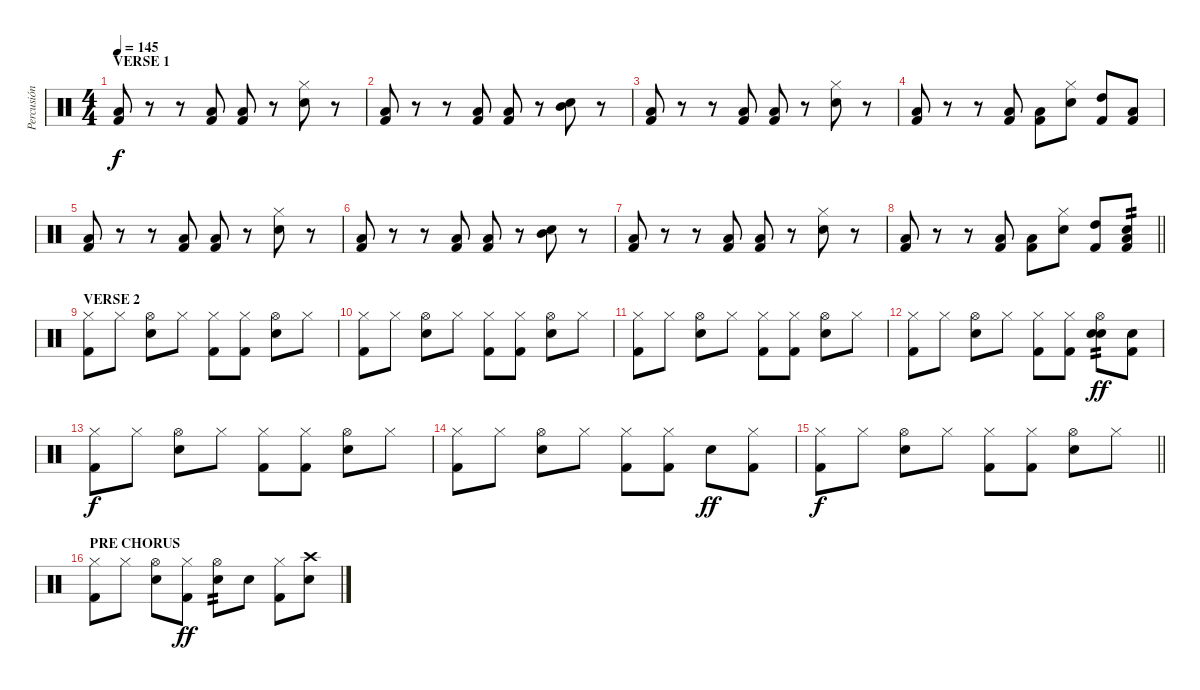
\track ("Percusión" "Percusión") {instrument percussion}
\staff {score}
\articulation defaults
\ts (4 4)
\section ("" "VERSE 1")
\tempo 145
\clef neutral
\ks c
("Kick (hit) 2" "Low Floor Tom (hit)").8{dy f} r.8 r.8 ("Kick (hit) 2" "Low Floor Tom (hit)").8 ("Kick (hit) 2" "Low Floor Tom (hit)").8 r.8 ("Snare (hit) 2" "Hi-Hat (closed)").8 r.8 |
("Kick (hit) 2" "Low Floor Tom (hit)").8 r.8 r.8 ("Kick (hit) 2" "Low Floor Tom (hit)").8 ("Kick (hit) 2" "Low Floor Tom (hit)").8 r.8 ("Snare (hit) 2" "Mid Tom (hit)").8 r.8 |
("Kick (hit) 2" "Low Floor Tom (hit)").8 r.8 r.8 ("Kick (hit) 2" "Low Floor Tom (hit)").8 ("Kick (hit) 2" "Low Floor Tom (hit)").8 r.8 ("Snare (hit) 2" "Hi-Hat (closed)").8 r.8 |
("Kick (hit) 2" "Low Floor Tom (hit)").8 r.8 r.8 ("Kick (hit) 2" "Low Floor Tom (hit)").8 ("Kick (hit) 2" "Low Floor Tom (hit)").8 ("Snare (hit) 2" "Hi-Hat (closed)").8 ("Kick (hit) 2" "High Tom (hit)").8 ("Kick (hit) 2" "Low Tom (hit)").8 |
("Kick (hit) 2" "Low Floor Tom (hit)").8 r.8 r.8 ("Kick (hit) 2" "Low Floor Tom (hit)").8 ("Kick (hit) 2" "Low Floor Tom (hit)").8 r.8 ("Snare (hit) 2" "Hi-Hat (closed)").8 r.8 |
("Kick (hit) 2" "Low Floor Tom (hit)").8 r.8 r.8 ("Kick (hit) 2" "Low Floor Tom (hit)").8 ("Kick (hit) 2" "Low Floor Tom (hit)").8 r.8 ("Snare (hit) 2" "Mid Tom (hit)").8 r.8 |
("Kick (hit) 2" "Low Floor Tom (hit)").8 r.8 r.8 ("Kick (hit) 2" "Low Floor Tom (hit)").8 ("Kick (hit) 2" "Low Floor Tom (hit)").8 r.8 ("Snare (hit) 2" "Hi-Hat (closed)").8 r.8 |
\barLineRight lightlight
("Kick (hit) 2" "Low Floor Tom (hit)").8 r.8 r.8 ("Kick (hit) 2" "Low Floor Tom (hit)").8 ("Kick (hit) 2" "Low Floor Tom (hit)").8 ("Snare (hit) 2" "Hi-Hat (closed)").8 ("Kick (hit) 2" "High Tom (hit)").8 ("Kick (hit) 2" "Low Tom (hit)" "Snare (hit) 2").8{tp 2} |
\section ("" "VERSE 2")
("Hi-Hat (closed)" "Kick (hit) 2").8 "Hi-Hat (closed)".8 ("Snare (hit) 2" "Hi-Hat (open)").8 "Hi-Hat (closed)".8 ("Hi-Hat (closed)" "Kick (hit) 2").8 ("Hi-Hat (closed)" "Kick (hit) 2").8 ("Snare (hit) 2" "Hi-Hat (open)").8 "Hi-Hat (closed)".8 |
("Hi-Hat (closed)" "Kick (hit) 2").8 "Hi-Hat (closed)".8 ("Snare (hit) 2" "Hi-Hat (open)").8 "Hi-Hat (closed)".8 ("Hi-Hat (closed)" "Kick (hit) 2").8 ("Hi-Hat (closed)" "Kick (hit) 2").8 ("Snare (hit) 2" "Hi-Hat (open)").8 "Hi-Hat (closed)".8 |
("Hi-Hat (closed)" "Kick (hit) 2").8 "Hi-Hat (closed)".8 ("Snare (hit) 2" "Hi-Hat (open)").8 "Hi-Hat (closed)".8 ("Hi-Hat (closed)" "Kick (hit) 2").8 ("Hi-Hat (closed)" "Kick (hit) 2").8 ("Snare (hit) 2" "Hi-Hat (open)").8 "Hi-Hat (closed)".8 |
("Hi-Hat (closed)" "Kick (hit) 2").8 "Hi-Hat (closed)".8 ("Snare (hit) 2" "Hi-Hat (open)").8 "Hi-Hat (closed)".8 ("Hi-Hat (closed)" "Kick (hit) 2").8 ("Hi-Hat (closed)" "Kick (hit) 2").8 ("Snare (hit) 2" "Snare (hit) 2" "Hi-Hat (open)").8{tp 2 dy ff} ("Snare (hit) 2" "Kick (hit) 2").8 |
("Hi-Hat (closed)" "Kick (hit) 2").8{dy f} "Hi-Hat (closed)".8 ("Snare (hit) 2" "Hi-Hat (open)").8 "Hi-Hat (closed)".8 ("Hi-Hat (closed)" "Kick (hit) 2").8 ("Hi-Hat (closed)" "Kick (hit) 2").8 ("Snare (hit) 2" "Hi-Hat (open)").8 "Hi-Hat (closed)".8 |
("Hi-Hat (closed)" "Kick (hit) 2").8 "Hi-Hat (closed)".8 ("Snare (hit) 2" "Hi-Hat (open)").8 "Hi-Hat (closed)".8 ("Hi-Hat (closed)" "Kick (hit) 2").8 ("Hi-Hat (closed)" "Kick (hit) 2").8 "Snare (hit) 2".8{dy ff} ("Hi-Hat (closed)" "Kick (hit) 2").8 |
\barLineRight lightlight
("Hi-Hat (closed)" "Kick (hit) 2").8{dy f} "Hi-Hat (closed)".8 ("Snare (hit) 2" "Hi-Hat (open)").8 "Hi-Hat (closed)".8 ("Hi-Hat (closed)" "Kick (hit) 2").8 ("Hi-Hat (closed)" "Kick (hit) 2").8 ("Snare (hit) 2" "Hi-Hat (open)").8 "Hi-Hat (closed)".8 |
\section ("" "PRE CHORUS")
("Hi-Hat (closed)" "Kick (hit) 2").8 "Hi-Hat (closed)".8 ("Snare (hit) 2" "Hi-Hat (open)").8 ("Hi-Hat (closed)" "Kick (hit) 2").8{dy ff} ("Snare (hit) 2" "Hi-Hat (open)").8{tp 2} "Snare (hit) 2".8 ("Hi-Hat (closed)" "Kick (hit) 2").8 ("Snare (hit) 2" "Crash high (hit)").8
